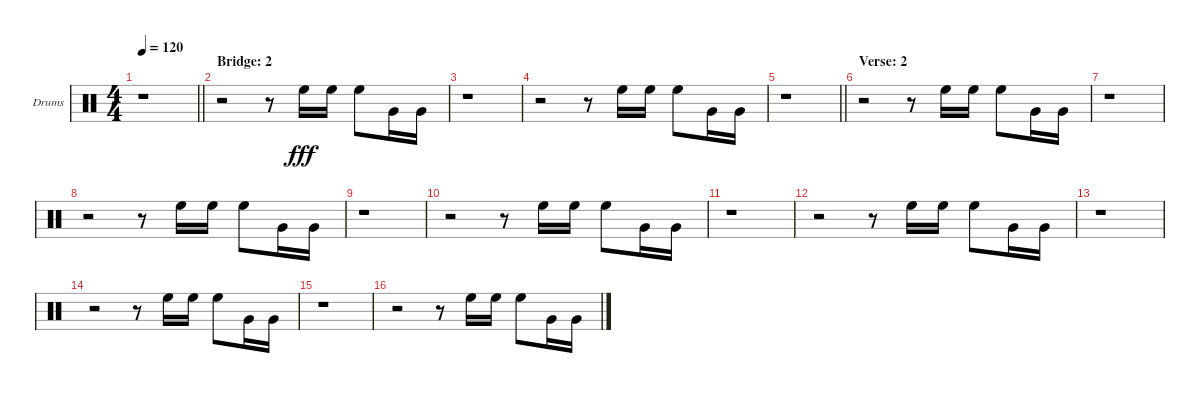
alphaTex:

\bracketExtendMode groupsimilarinstruments
\firstSystemTrackNameOrientation horizontal
\otherSystemsTrackNameOrientation horizontal
\track ("Drumkit" "Drums") {instrument percussion}
\staff {score}
\articulation defaults
\ts (4 4)
\tempo 120
\clef neutral
\barLineRight lightlight
\ks c
r.1{dy fff} |
\section ("" "Bridge: 2")
r.2 r.8 "High Floor Tom (hit)".16 "High Floor Tom (hit)".16 "High Floor Tom (hit)".8 "Very Low Tom (hit)".16 "Very Low Tom (hit)".16 |
r.1 |
r.2 r.8 "High Floor Tom (hit)".16 "High Floor Tom (hit)".16 "High Floor Tom (hit)".8 "Very Low Tom (hit)".16 "Very Low Tom (hit)".16 |
\barLineRight lightlight
r.1 |
\section ("" "Verse: 2")
r.2 r.8 "High Floor Tom (hit)".16 "High Floor Tom (hit)".16 "High Floor Tom (hit)".8 "Very Low Tom (hit)".16 "Very Low Tom (hit)".16 |
r.1 |
r.2 r.8 "High Floor Tom (hit)".16 "High Floor Tom (hit)".16 "High Floor Tom (hit)".8 "Very Low Tom (hit)".16 "Very Low Tom (hit)".16 |
r.1 |
r.2 r.8 "High Floor Tom (hit)".16 "High Floor Tom (hit)".16 "High Floor Tom (hit)".8 "Very Low Tom (hit)".16 "Very Low Tom (hit)".16 |
r.1 |
r.2 r.8 "High Floor Tom (hit)".16 "High Floor Tom (hit)".16 "High Floor Tom (hit)".8 "Very Low Tom (hit)".16 "Very Low Tom (hit)".16 |
r.1 |
r.2 r.8 "High Floor Tom (hit)".16 "High Floor Tom (hit)".16 "High Floor Tom (hit)".8 "Very Low Tom (hit)".16 "Very Low Tom (hit)".16 |
r.1 |
r.2 r.8 "High Floor Tom (hit)".16 "High Floor Tom (hit)".16 "High Floor Tom (hit)".8 "Very Low Tom (hit)".16 "Very Low Tom (hit)".16
